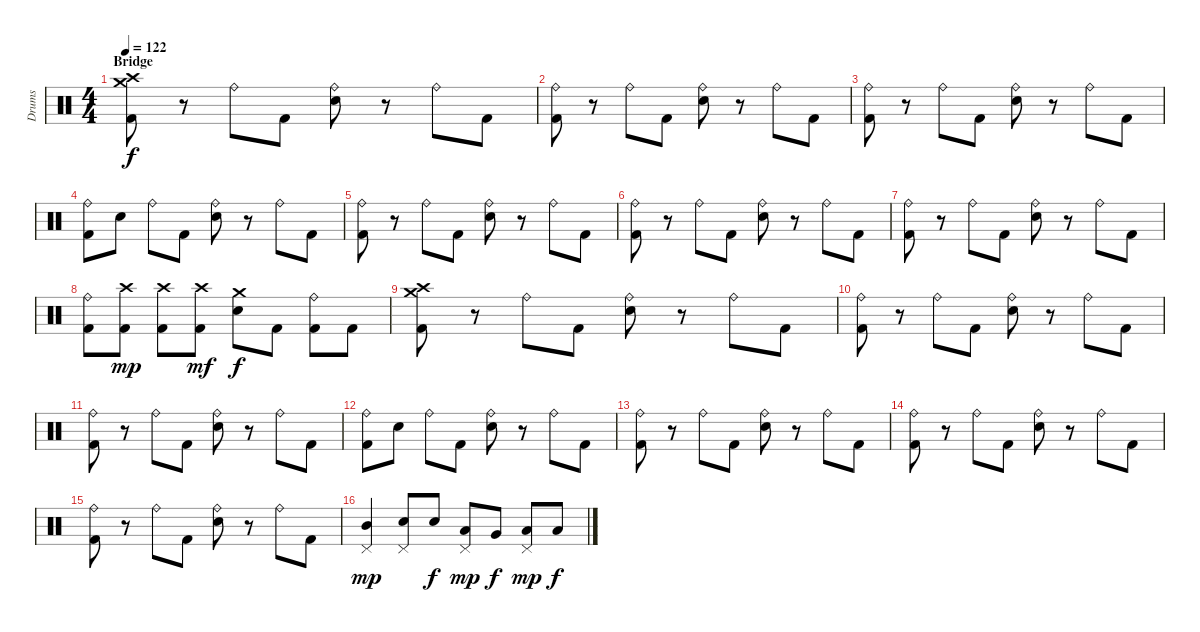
\track ("Drums" "Drums") {instrument percussion}
\staff {score}
\articulation defaults
\ts (4 4)
\section ("" "Bridge")
\tempo 122
\clef neutral
\ks c
("Crash high (hit)" "Crash medium (hit)" "Kick (hit) 2").8{dy f} r.8 "Ride (bell)".8 "Kick (hit) 2".8 ("Ride (bell)" "Snare (hit) 2").8 r.8 "Ride (bell)".8 "Kick (hit) 2".8 |
("Ride (bell)" "Kick (hit) 2").8 r.8 "Ride (bell)".8 "Kick (hit) 2".8 ("Ride (bell)" "Snare (hit) 2").8 r.8 "Ride (bell)".8 "Kick (hit) 2".8 |
("Ride (bell)" "Kick (hit) 2").8 r.8 "Ride (bell)".8 "Kick (hit) 2".8 ("Ride (bell)" "Snare (hit) 2").8 r.8 "Ride (bell)".8 "Kick (hit) 2".8 |
("Ride (bell)" "Kick (hit) 2").8 "Snare (hit) 2".8 "Ride (bell)".8 "Kick (hit) 2".8 ("Ride (bell)" "Snare (hit) 2").8 r.8 "Ride (bell)".8 "Kick (hit) 2".8 |
("Ride (bell)" "Kick (hit) 2").8 r.8 "Ride (bell)".8 "Kick (hit) 2".8 ("Ride (bell)" "Snare (hit) 2").8 r.8 "Ride (bell)".8 "Kick (hit) 2".8 |
("Ride (bell)" "Kick (hit) 2").8 r.8 "Ride (bell)".8 "Kick (hit) 2".8 ("Ride (bell)" "Snare (hit) 2").8 r.8 "Ride (bell)".8 "Kick (hit) 2".8 |
("Ride (bell)" "Kick (hit) 2").8 r.8 "Ride (bell)".8 "Kick (hit) 2".8 ("Ride (bell)" "Snare (hit) 2").8 r.8 "Ride (bell)".8 "Kick (hit) 2".8 |
("Ride (bell)" "Kick (hit) 2").8 ("Crash high (hit)" "Kick (hit) 2").8{dy mp} ("Crash high (hit)" "Kick (hit) 2").8 ("Crash high (hit)" "Kick (hit) 2").8{dy mf} ("Crash medium (hit)" "Snare (hit) 2").8{dy f} "Kick (hit) 2".8 ("Ride (bell)" "Kick (hit) 2").8 "Kick (hit) 2".8 |
("Crash high (hit)" "Crash medium (hit)" "Kick (hit) 2").8 r.8 "Ride (bell)".8 "Kick (hit) 2".8 ("Ride (bell)" "Snare (hit) 2").8 r.8 "Ride (bell)".8 "Kick (hit) 2".8 |
("Ride (bell)" "Kick (hit) 2").8 r.8 "Ride (bell)".8 "Kick (hit) 2".8 ("Ride (bell)" "Snare (hit) 2").8 r.8 "Ride (bell)".8 "Kick (hit) 2".8 |
("Ride (bell)" "Kick (hit) 2").8 r.8 "Ride (bell)".8 "Kick (hit) 2".8 ("Ride (bell)" "Snare (hit) 2").8 r.8 "Ride (bell)".8 "Kick (hit) 2".8 |
("Ride (bell)" "Kick (hit) 2").8 "Snare (hit) 2".8 "Ride (bell)".8 "Kick (hit) 2".8 ("Ride (bell)" "Snare (hit) 2").8 r.8 "Ride (bell)".8 "Kick (hit) 2".8 |
("Ride (bell)" "Kick (hit) 2").8 r.8 "Ride (bell)".8 "Kick (hit) 2".8 ("Ride (bell)" "Snare (hit) 2").8 r.8 "Ride (bell)".8 "Kick (hit) 2".8 |
("Ride (bell)" "Kick (hit) 2").8 r.8 "Ride (bell)".8 "Kick (hit) 2".8 ("Ride (bell)" "Snare (hit) 2").8 r.8 "Ride (bell)".8 "Kick (hit) 2".8 |
("Ride (bell)" "Kick (hit) 2").8 r.8 "Ride (bell)".8 "Kick (hit) 2".8 ("Ride (bell)" "Snare (hit) 2").8 r.8 "Ride (bell)".8 "Kick (hit) 2".8 |
("Pedal Hi-Hat (hit)" "Mid Tom (hit)").4{dy mp} ("Pedal Hi-Hat (hit)" "Snare (hit) 2").8 "Snare (hit) 2".8{dy f} ("Pedal Hi-Hat (hit)" "Low Tom (hit)").8{dy mp} "Very Low Tom (hit)".8{dy f} ("Pedal Hi-Hat (hit)" "Low Floor Tom (hit)").8{dy mp} "Low Floor Tom (hit)".8{dy f}
